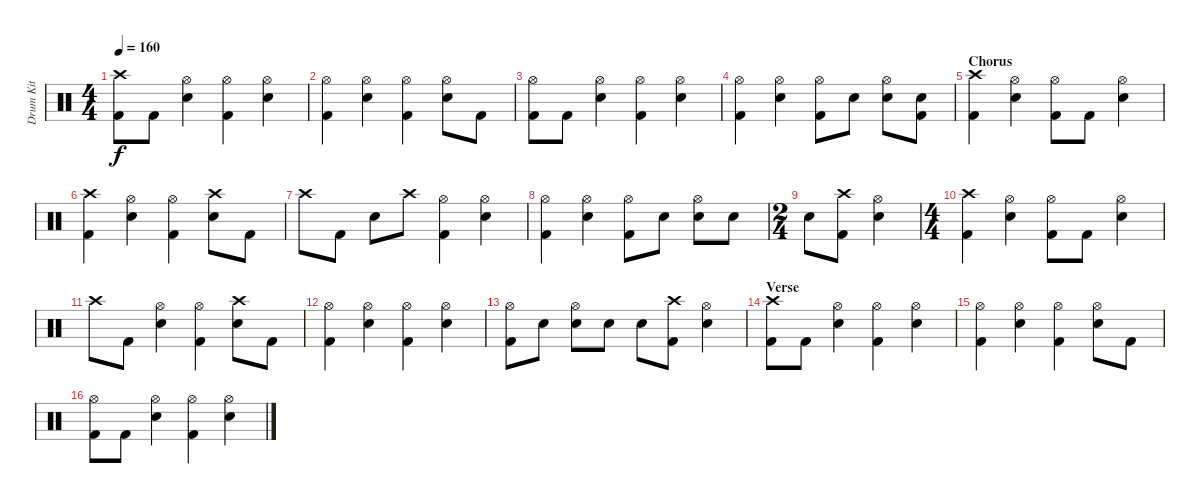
\track ("Drum Kit" "Drum Kit") {instrument percussion}
\staff {score}
\articulation defaults
\ts (4 4)
\tempo 160
\clef neutral
\ks c
("Crash high (hit)" "Kick (hit) 2").8{dy f} "Kick (hit) 2".8 ("Hi-Hat (open)" "Electric Snare (hit)").4 ("Hi-Hat (open)" "Kick (hit) 2").4 ("Hi-Hat (open)" "Electric Snare (hit)").4 |
("Hi-Hat (open)" "Kick (hit) 2").4 ("Hi-Hat (open)" "Electric Snare (hit)").4 ("Hi-Hat (open)" "Kick (hit) 2").4 ("Hi-Hat (open)" "Electric Snare (hit)").8 "Kick (hit) 2".8 |
("Hi-Hat (open)" "Kick (hit) 2").8 "Kick (hit) 2".8 ("Hi-Hat (open)" "Electric Snare (hit)").4 ("Hi-Hat (open)" "Kick (hit) 2").4 ("Hi-Hat (open)" "Electric Snare (hit)").4 |
("Hi-Hat (open)" "Kick (hit) 2").4 ("Hi-Hat (open)" "Electric Snare (hit)").4 ("Hi-Hat (open)" "Kick (hit) 2").8 "Electric Snare (hit)".8 ("Hi-Hat (open)" "Electric Snare (hit)").8 ("Electric Snare (hit)" "Kick (hit) 2").8 |
\section ("" "Chorus")
("Crash high (hit)" "Kick (hit) 2").4 ("Hi-Hat (open)" "Electric Snare (hit)").4 ("Hi-Hat (open)" "Kick (hit) 2").8 "Kick (hit) 2".8 ("Hi-Hat (open)" "Electric Snare (hit)").4 |
("Crash high (hit)" "Kick (hit) 2").4 ("Hi-Hat (open)" "Electric Snare (hit)").4 ("Hi-Hat (open)" "Kick (hit) 2").4 ("Crash high (hit)" "Electric Snare (hit)").8 "Kick (hit) 2".8 |
"Crash high (hit)".8 "Kick (hit) 2".8 "Electric Snare (hit)".8 "Crash high (hit)".8 ("Hi-Hat (open)" "Kick (hit) 2").4 ("Hi-Hat (open)" "Electric Snare (hit)").4 |
("Hi-Hat (open)" "Kick (hit) 2").4 ("Hi-Hat (open)" "Electric Snare (hit)").4 ("Hi-Hat (open)" "Kick (hit) 2").8 "Electric Snare (hit)".8 ("Hi-Hat (open)" "Electric Snare (hit)").8 "Electric Snare (hit)".8 |
\ts (2 4)
"Electric Snare (hit)".8 ("Crash high (hit)" "Kick (hit) 2").8 ("Hi-Hat (open)" "Electric Snare (hit)").4 |
\ts (4 4)
("Crash high (hit)" "Kick (hit) 2").4 ("Hi-Hat (open)" "Electric Snare (hit)").4 ("Hi-Hat (open)" "Kick (hit) 2").8 "Kick (hit) 2".8 ("Hi-Hat (open)" "Electric Snare (hit)").4 |
"Crash high (hit)".8 "Kick (hit) 2".8 ("Hi-Hat (open)" "Electric Snare (hit)").4 ("Hi-Hat (open)" "Kick (hit) 2").4 ("Crash high (hit)" "Electric Snare (hit)").8 "Kick (hit) 2".8 |
("Hi-Hat (open)" "Kick (hit) 2").4 ("Hi-Hat (open)" "Electric Snare (hit)").4 ("Hi-Hat (open)" "Kick (hit) 2").4 ("Hi-Hat (open)" "Electric Snare (hit)").4 |
("Hi-Hat (open)" "Kick (hit) 2").8 "Electric Snare (hit)".8 ("Hi-Hat (open)" "Electric Snare (hit)").8 "Electric Snare (hit)".8 "Electric Snare (hit)".8 ("Crash high (hit)" "Kick (hit) 2").8 ("Hi-Hat (open)" "Electric Snare (hit)").4 |
\section ("" "Verse")
("Crash high (hit)" "Kick (hit) 2").8 "Kick (hit) 2".8 ("Hi-Hat (open)" "Electric Snare (hit)").4 ("Hi-Hat (open)" "Kick (hit) 2").4 ("Hi-Hat (open)" "Electric Snare (hit)").4 |
("Hi-Hat (open)" "Kick (hit) 2").4 ("Hi-Hat (open)" "Electric Snare (hit)").4 ("Hi-Hat (open)" "Kick (hit) 2").4 ("Hi-Hat (open)" "Electric Snare (hit)").8 "Kick (hit) 2".8 |
("Hi-Hat (open)" "Kick (hit) 2").8 "Kick (hit) 2".8 ("Hi-Hat (open)" "Electric Snare (hit)").4 ("Hi-Hat (open)" "Kick (hit) 2").4 ("Hi-Hat (open)" "Electric Snare (hit)").4
